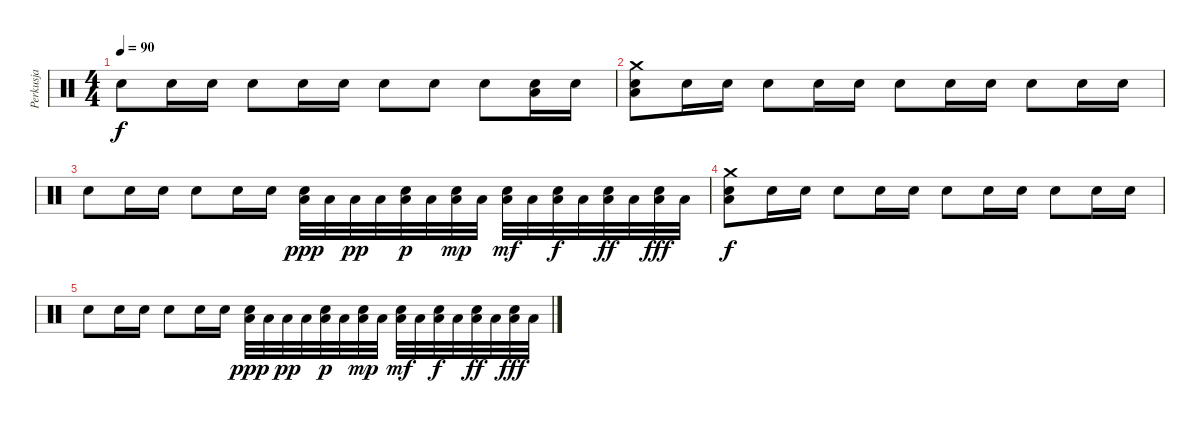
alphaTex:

\track ("Perkusja" "Perkusja") {instrument percussion}
\staff {score}
\articulation defaults
\ts (4 4)
\tempo 90
\clef neutral
\ks c "Electric Snare (hit)".8{dy f} "Electric Snare (hit)".16 "Electric Snare (hit)".16 "Electric Snare (hit)".8 "Electric Snare (hit)".16 "Electric Snare (hit)".16 "Electric Snare (hit)".8 "Electric Snare (hit)".8 "Electric Snare (hit)".8
("Electric Snare (hit)" "Low Floor Tom (hit)").16 "Electric Snare (hit)".16 |
("Crash medium (hit)" "Electric Snare (hit)" "Low Floor Tom (hit)").8 "Electric Snare (hit)".16 "Electric Snare (hit)".16 "Electric Snare (hit)".8 "Electric Snare (hit)".16 "Electric Snare (hit)".16 "Electric Snare (hit)".8 "Electric Snare (hit)".16 "Electric Snare (hit)".16 "Electric Snare (hit)".8 "Electric Snare (hit)".16 "Electric Snare (hit)".16 |
"Electric Snare (hit)".8 "Electric Snare (hit)".16 "Electric Snare (hit)".16 "Electric Snare (hit)".8 "Electric Snare (hit)".16 "Electric Snare (hit)".16 ("Electric Snare (hit)" "Low Floor Tom (hit)").32{dy ppp} "Low Floor Tom (hit)".32 "Low Floor Tom (hit)".32{dy pp} "Low Floor Tom (hit)".32 ("Electric Snare (hit)" "Low Floor Tom (hit)").32{dy p} "Low Floor Tom (hit)".32 ("Electric Snare (hit)" "Low Floor Tom (hit)").32{dy mp} "Low Floor Tom (hit)".32 ("Electric Snare (hit)" "Low Floor Tom (hit)").32{dy mf} "Low Floor Tom (hit)".32 ("Electric Snare (hit)" "Low Floor Tom (hit)").32{dy f} "Low Floor Tom (hit)".32 ("Electric Snare (hit)" "Low Floor Tom (hit)").32{dy ff} "Low Floor Tom (hit)".32 ("Electric Snare (hit)" "Low Floor Tom (hit)").32{dy fff} "Low Floor Tom (hit)".32 |
("Crash medium (hit)" "Electric Snare (hit)" "Low Floor Tom (hit)").8{dy f} "Electric Snare (hit)".16 "Electric Snare (hit)".16 "Electric Snare (hit)".8 "Electric Snare (hit)".16 "Electric Snare (hit)".16 "Electric Snare (hit)".8 "Electric Snare (hit)".16 "Electric Snare (hit)".16 "Electric Snare (hit)".8 "Electric Snare (hit)".16 "Electric Snare (hit)".16 |
"Electric Snare (hit)".8 "Electric Snare (hit)".16 "Electric Snare (hit)".16 "Electric Snare (hit)".8 "Electric Snare (hit)".16 "Electric Snare (hit)".16 ("Electric Snare (hit)" "Low Floor Tom (hit)").32{dy ppp} "Low Floor Tom (hit)".32 "Low Floor Tom (hit)".32{dy pp} "Low Floor Tom (hit)".32 ("Electric Snare (hit)" "Low Floor Tom (hit)").32{dy p} "Low Floor Tom (hit)".32 ("Electric Snare (hit)" "Low Floor Tom (hit)").32{dy mp} "Low Floor Tom (hit)".32 ("Electric Snare (hit)" "Low Floor Tom (hit)").32{dy mf} "Low Floor Tom (hit)".32 ("Electric Snare (hit)" "Low Floor Tom (hit)").32{dy f} "Low Floor Tom (hit)".32 ("Electric Snare (hit)" "Low Floor Tom (hit)").32{dy ff} "Low Floor Tom (hit)".32 ("Electric Snare (hit)" "Low Floor Tom (hit)").32{dy fff} "Low Floor Tom (hit)".32
